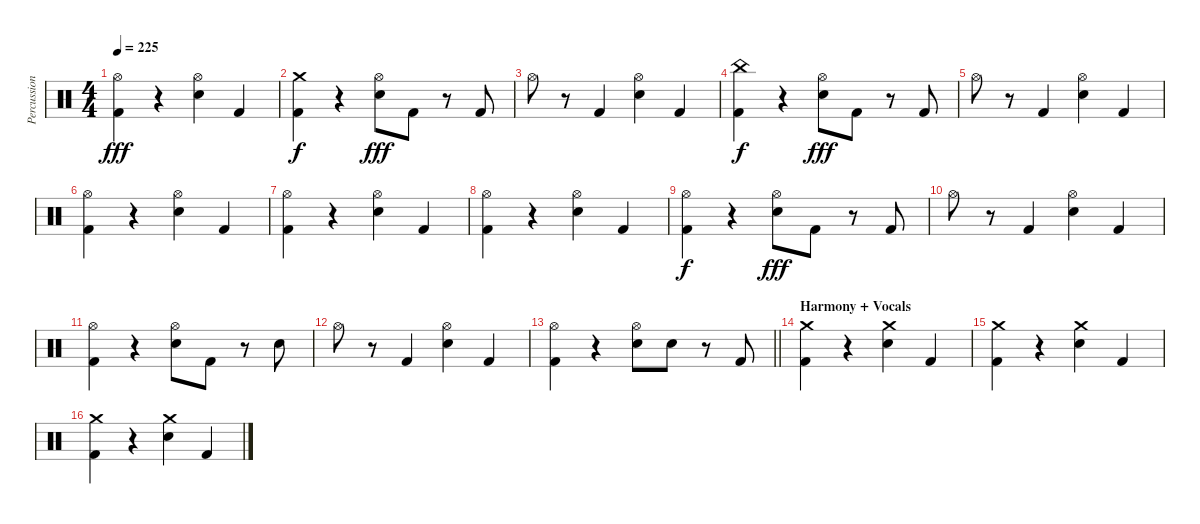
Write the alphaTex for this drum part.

\track ("Percussion" "Percussion") {instrument percussion}
\staff {score}
\articulation defaults
\ts (4 4)
\tempo 225
\clef neutral
\ks c
("Hi-Hat (open)" "Kick (hit) 2").4{dy fff} r.4 ("Hi-Hat (open)" "Electric Snare (hit)").4 "Kick (hit) 2".4 |
("Crash medium (hit)" "Kick (hit) 2").4{dy f} r.4 ("Hi-Hat (open)" "Electric Snare (hit)").8{dy fff} "Kick (hit) 2".8 r.8 "Kick (hit) 2".8 |
"Hi-Hat (open)".8 r.8 "Kick (hit) 2".4 ("Hi-Hat (open)" "Electric Snare (hit)").4 "Kick (hit) 2".4 |
("China (hit)" "Kick (hit) 2").4{dy f} r.4 ("Hi-Hat (open)" "Electric Snare (hit)").8{dy fff} "Kick (hit) 2".8 r.8 "Kick (hit) 2".8 |
"Hi-Hat (open)".8 r.8 "Kick (hit) 2".4 ("Hi-Hat (open)" "Electric Snare (hit)").4 "Kick (hit) 2".4 |
("Hi-Hat (open)" "Kick (hit) 2").4 r.4 ("Hi-Hat (open)" "Electric Snare (hit)").4 "Kick (hit) 2".4 |
("Hi-Hat (open)" "Kick (hit) 2").4 r.4 ("Hi-Hat (open)" "Electric Snare (hit)").4 "Kick (hit) 2".4 |
("Hi-Hat (open)" "Kick (hit) 2").4 r.4 ("Hi-Hat (open)" "Electric Snare (hit)").4 "Kick (hit) 2".4 |
("Hi-Hat (open)" "Kick (hit) 2").4{dy f} r.4 ("Hi-Hat (open)" "Electric Snare (hit)").8{dy fff} "Kick (hit) 2".8 r.8 "Kick (hit) 2".8 |
"Hi-Hat (open)".8 r.8 "Kick (hit) 2".4 ("Hi-Hat (open)" "Electric Snare (hit)").4 "Kick (hit) 2".4 |
("Hi-Hat (open)" "Kick (hit) 2").4 r.4 ("Hi-Hat (open)" "Electric Snare (hit)").8 "Kick (hit) 2".8 r.8 "Electric Snare (hit)".8 |
"Hi-Hat (open)".8 r.8 "Kick (hit) 2".4 ("Hi-Hat (open)" "Electric Snare (hit)").4 "Kick (hit) 2".4 |
\barLineRight lightlight
("Hi-Hat (open)" "Kick (hit) 2").4 r.4 ("Hi-Hat (open)" "Electric Snare (hit)").8 "Electric Snare (hit)".8 r.8 "Kick (hit) 2".8 |
\section ("" "Harmony + Vocals")
("Crash medium (hit)" "Kick (hit) 2").4 r.4 ("Crash medium (hit)" "Electric Snare (hit)").4 "Kick (hit) 2".4 |
("Crash medium (hit)" "Kick (hit) 2").4 r.4 ("Crash medium (hit)" "Electric Snare (hit)").4 "Kick (hit) 2".4 |
("Crash medium (hit)" "Kick (hit) 2").4 r.4 ("Crash medium (hit)" "Electric Snare (hit)").4 "Kick (hit) 2".4
